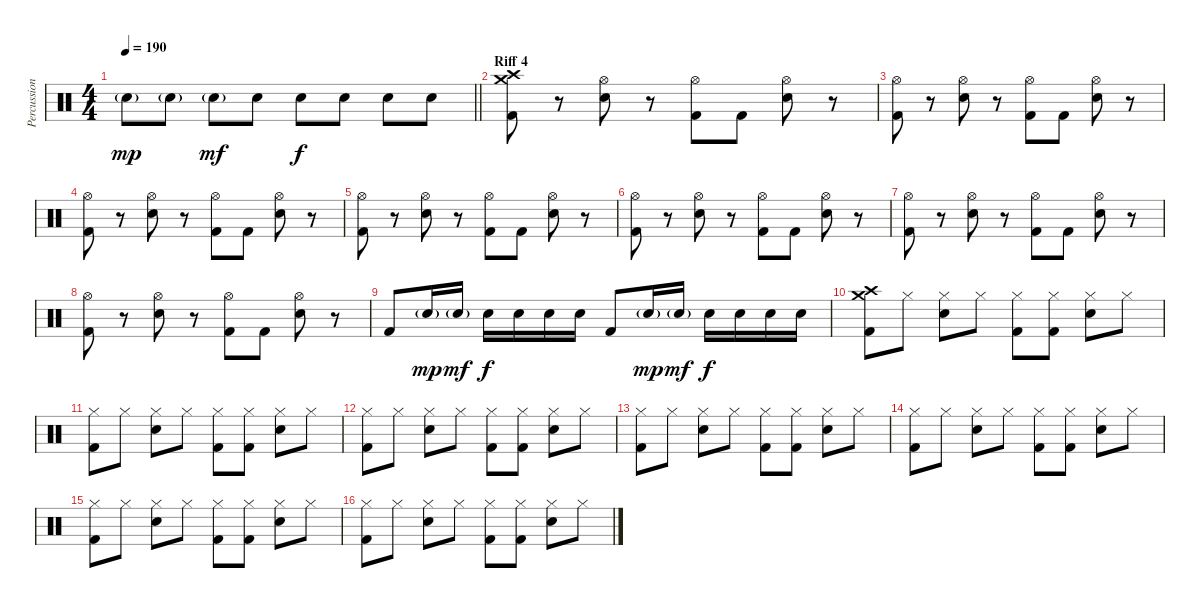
\track ("Percussion" "Percussion") {instrument percussion}
\staff {score}
\articulation defaults
\ts (4 4)
\tempo 190
\clef neutral
\barLineRight lightlight
\ks c "Electric Snare (hit)"{g}.8{dy mp} "Electric Snare (hit)"{g}.8 "Electric Snare (hit)"{g}.8{dy mf} "Electric Snare (hit)".8 "Electric Snare (hit)".8{dy f} "Electric Snare (hit)".8 "Electric Snare (hit)".8 "Electric Snare (hit)".8
|
\section ("" "Riff 4")
("Crash medium (hit)" "Crash high (hit)" "Kick (hit) 2").8 r.8 ("Hi-Hat (open)" "Electric Snare (hit)").8 r.8 ("Hi-Hat (open)" "Kick (hit) 2").8 "Kick (hit) 2".8 ("Hi-Hat (open)" "Electric Snare (hit)").8 r.8 |
("Hi-Hat (open)" "Kick (hit) 2").8 r.8 ("Hi-Hat (open)" "Electric Snare (hit)").8 r.8 ("Hi-Hat (open)" "Kick (hit) 2").8 "Kick (hit) 2".8 ("Hi-Hat (open)" "Electric Snare (hit)").8 r.8 |
("Hi-Hat (open)" "Kick (hit) 2").8 r.8 ("Hi-Hat (open)" "Electric Snare (hit)").8 r.8 ("Hi-Hat (open)" "Kick (hit) 2").8 "Kick (hit) 2".8 ("Hi-Hat (open)" "Electric Snare (hit)").8 r.8 |
("Hi-Hat (open)" "Kick (hit) 2").8 r.8 ("Hi-Hat (open)" "Electric Snare (hit)").8 r.8 ("Hi-Hat (open)" "Kick (hit) 2").8 "Kick (hit) 2".8 ("Hi-Hat (open)" "Electric Snare (hit)").8 r.8 |
("Hi-Hat (open)" "Kick (hit) 2").8 r.8 ("Hi-Hat (open)" "Electric Snare (hit)").8 r.8 ("Hi-Hat (open)" "Kick (hit) 2").8 "Kick (hit) 2".8 ("Hi-Hat (open)" "Electric Snare (hit)").8 r.8 |
("Hi-Hat (open)" "Kick (hit) 2").8 r.8 ("Hi-Hat (open)" "Electric Snare (hit)").8 r.8 ("Hi-Hat (open)" "Kick (hit) 2").8 "Kick (hit) 2".8 ("Hi-Hat (open)" "Electric Snare (hit)").8 r.8 |
("Hi-Hat (open)" "Kick (hit) 2").8 r.8 ("Hi-Hat (open)" "Electric Snare (hit)").8 r.8 ("Hi-Hat (open)" "Kick (hit) 2").8 "Kick (hit) 2".8 ("Hi-Hat (open)" "Electric Snare (hit)").8 r.8 |
"Kick (hit) 2".8 "Electric Snare (hit)"{g}.16{dy mp} "Electric Snare (hit)"{g}.16{dy mf} "Electric Snare (hit)".16{dy f} "Electric Snare (hit)".16 "Electric Snare (hit)".16 "Electric Snare (hit)".16 "Kick (hit) 2".8 "Electric Snare (hit)"{g}.16{dy mp} "Electric Snare (hit)"{g}.16{dy mf} "Electric Snare (hit)".16{dy f} "Electric Snare (hit)".16 "Electric Snare (hit)".16 "Electric Snare (hit)".16 |
("Crash medium (hit)" "Crash high (hit)" "Kick (hit) 2").8 "Hi-Hat (closed)".8 ("Hi-Hat (closed)" "Electric Snare (hit)").8 "Hi-Hat (closed)".8 ("Hi-Hat (closed)" "Kick (hit) 2").8 ("Hi-Hat (closed)" "Kick (hit) 2").8 ("Hi-Hat (closed)" "Electric Snare (hit)").8 "Hi-Hat (closed)".8 |
("Hi-Hat (closed)" "Kick (hit) 2").8 "Hi-Hat (closed)".8 ("Hi-Hat (closed)" "Electric Snare (hit)").8 "Hi-Hat (closed)".8 ("Hi-Hat (closed)" "Kick (hit) 2").8 ("Hi-Hat (closed)" "Kick (hit) 2").8 ("Hi-Hat (closed)" "Electric Snare (hit)").8 "Hi-Hat (closed)".8 |
("Hi-Hat (closed)" "Kick (hit) 2").8 "Hi-Hat (closed)".8 ("Hi-Hat (closed)" "Electric Snare (hit)").8 "Hi-Hat (closed)".8 ("Hi-Hat (closed)" "Kick (hit) 2").8 ("Hi-Hat (closed)" "Kick (hit) 2").8 ("Hi-Hat (closed)" "Electric Snare (hit)").8 "Hi-Hat (closed)".8 |
("Hi-Hat (closed)" "Kick (hit) 2").8 "Hi-Hat (closed)".8 ("Hi-Hat (closed)" "Electric Snare (hit)").8 "Hi-Hat (closed)".8 ("Hi-Hat (closed)" "Kick (hit) 2").8 ("Hi-Hat (closed)" "Kick (hit) 2").8 ("Hi-Hat (closed)" "Electric Snare (hit)").8 "Hi-Hat (closed)".8 |
("Hi-Hat (closed)" "Kick (hit) 2").8 "Hi-Hat (closed)".8 ("Hi-Hat (closed)" "Electric Snare (hit)").8 "Hi-Hat (closed)".8 ("Hi-Hat (closed)" "Kick (hit) 2").8 ("Hi-Hat (closed)" "Kick (hit) 2").8 ("Hi-Hat (closed)" "Electric Snare (hit)").8 "Hi-Hat (closed)".8 |
("Hi-Hat (closed)" "Kick (hit) 2").8 "Hi-Hat (closed)".8 ("Hi-Hat (closed)" "Electric Snare (hit)").8 "Hi-Hat (closed)".8 ("Hi-Hat (closed)" "Kick (hit) 2").8 ("Hi-Hat (closed)" "Kick (hit) 2").8 ("Hi-Hat (closed)" "Electric Snare (hit)").8 "Hi-Hat (closed)".8 |
("Hi-Hat (closed)" "Kick (hit) 2").8 "Hi-Hat (closed)".8 ("Hi-Hat (closed)" "Electric Snare (hit)").8 "Hi-Hat (closed)".8 ("Hi-Hat (closed)" "Kick (hit) 2").8 ("Hi-Hat (closed)" "Kick (hit) 2").8 ("Hi-Hat (closed)" "Electric Snare (hit)").8 "Hi-Hat (closed)".8
